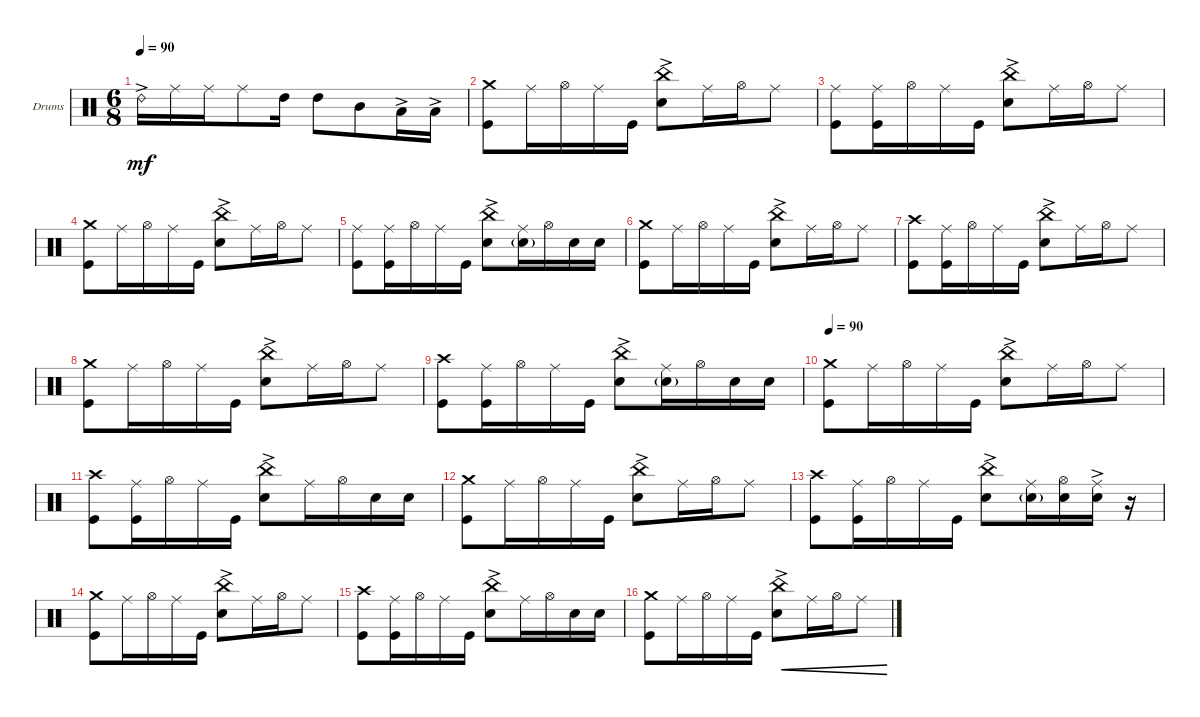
\bracketExtendMode groupsimilarinstruments
\firstSystemTrackNameOrientation horizontal
\otherSystemsTrackNameOrientation horizontal
\track ("Drumkit" "Drums") {instrument percussion}
\staff {score}
\articulation defaults
\ts (6 8)
\tempo 90
\clef neutral
\ks c "Ride (bell) 2"{ac}.16{dy mf} "Ride (middle)".16 "Ride (middle)".16 "Ride (middle)".8 "High Tom (hit)".16 "High Tom (hit)".8 "Mid Tom (hit)".8 "Low Tom (hit)"{ac}.16 "Low Tom (hit)"{ac}.16
|
("Kick (hit)" "Crash medium (hit)").8 "Ride (middle)".16 "Hi-Hat (open)".16 "Ride (middle)".16 "Kick (hit)".16 ("Snare (hit) 2"{ac} "China (hit)").8 "Ride (middle)".16 "Hi-Hat (open)".16 "Ride (middle)".8 |
("Ride (middle)" "Kick (hit)").8 ("Ride (middle)" "Kick (hit)").16 "Hi-Hat (open)".16 "Ride (middle)".16 "Kick (hit)".16 ("Snare (hit) 2"{ac} "China (hit)").8 "Ride (middle)".16 "Hi-Hat (open)".16 "Ride (middle)".8 |
("Kick (hit)" "Crash medium (hit)").8 "Ride (middle)".16 "Hi-Hat (open)".16 "Ride (middle)".16 "Kick (hit)".16 ("Snare (hit) 2"{ac} "China (hit)").8 "Ride (middle)".16 "Hi-Hat (open)".16 "Ride (middle)".8 |
("Ride (middle)" "Kick (hit)").8 ("Ride (middle)" "Kick (hit)").16 "Hi-Hat (open)".16 "Ride (middle)".16 "Kick (hit)".16 ("Snare (hit) 2"{ac} "China (hit)").8 ("Ride (middle)" "Snare (hit) 2"{g}).16 "Hi-Hat (open)".16 "Snare (hit) 2".16 "Snare (hit) 2".16 |
("Kick (hit)" "Crash medium (hit)").8 "Ride (middle)".16 "Hi-Hat (open)".16 "Ride (middle)".16 "Kick (hit)".16 ("Snare (hit) 2"{ac} "China (hit)").8 "Ride (middle)".16 "Hi-Hat (open)".16 "Ride (middle)".8 |
("Kick (hit)" "Crash high (hit)").8 ("Ride (middle)" "Kick (hit)").16 "Hi-Hat (open)".16 "Ride (middle)".16 "Kick (hit)".16 ("Snare (hit) 2"{ac} "China (hit)").8 "Ride (middle)".16 "Hi-Hat (open)".16 "Ride (middle)".8 |
("Kick (hit)" "Crash medium (hit)").8 "Ride (middle)".16 "Hi-Hat (open)".16 "Ride (middle)".16 "Kick (hit)".16 ("Snare (hit) 2"{ac} "China (hit)").8 "Ride (middle)".16 "Hi-Hat (open)".16 "Ride (middle)".8 |
("Kick (hit)" "Crash high (hit)").8 ("Ride (middle)" "Kick (hit)").16 "Hi-Hat (open)".16 "Ride (middle)".16 "Kick (hit)".16 ("Snare (hit) 2"{ac} "China (hit)").8 ("Ride (middle)" "Snare (hit) 2"{g}).16 "Hi-Hat (open)".16 "Snare (hit) 2".16 "Snare (hit) 2".16 |
\tempo 90
("Kick (hit)" "Crash medium (hit)").8 "Ride (middle)".16 "Hi-Hat (open)".16 "Ride (middle)".16 "Kick (hit)".16 ("Snare (hit) 2"{ac} "China (hit)").8 "Ride (middle)".16 "Hi-Hat (open)".16 "Ride (middle)".8 |
("Kick (hit)" "Crash high (hit)").8 ("Ride (middle)" "Kick (hit)").16 "Hi-Hat (open)".16 "Ride (middle)".16 "Kick (hit)".16 ("Snare (hit) 2"{ac} "China (hit)").8 "Ride (middle)".16 "Hi-Hat (open)".16 "Snare (hit) 2".16 "Snare (hit) 2".16 |
("Kick (hit)" "Crash medium (hit)").8 "Ride (middle)".16 "Hi-Hat (open)".16 "Ride (middle)".16 "Kick (hit)".16 ("Snare (hit) 2"{ac} "China (hit)").8 "Ride (middle)".16 "Hi-Hat (open)".16 "Ride (middle)".8 |
("Kick (hit)" "Crash high (hit)").8 ("Ride (middle)" "Kick (hit)").16 "Hi-Hat (open)".16 "Ride (middle)".16 "Kick (hit)".16 ("Snare (hit) 2"{ac} "China (hit)").8 ("Ride (middle)" "Snare (hit) 2"{g}).16 ("Hi-Hat (open)" "Snare (hit) 2").16 ("Snare (hit) 2"{ac} "Ride (middle)").16 r.16 |
("Kick (hit)" "Crash medium (hit)").8 "Ride (middle)".16 "Hi-Hat (open)".16 "Ride (middle)".16 "Kick (hit)".16 ("Snare (hit) 2"{ac} "China (hit)").8 "Ride (middle)".16 "Hi-Hat (open)".16 "Ride (middle)".8 |
("Kick (hit)" "Crash high (hit)").8 ("Ride (middle)" "Kick (hit)").16 "Hi-Hat (open)".16 "Ride (middle)".16 "Kick (hit)".16 ("Snare (hit) 2"{ac} "China (hit)").8 "Ride (middle)".16 "Hi-Hat (open)".16 "Snare (hit) 2".16 "Snare (hit) 2".16 |
("Kick (hit)" "Crash medium (hit)").8 "Ride (middle)".16 "Hi-Hat (open)".16 "Ride (middle)".16 "Kick (hit)".16 ("Snare (hit) 2"{ac} "China (hit)").8{cre} "Ride (middle)".16{cre} "Hi-Hat (open)".16{cre} "Ride (middle)".8{cre}
